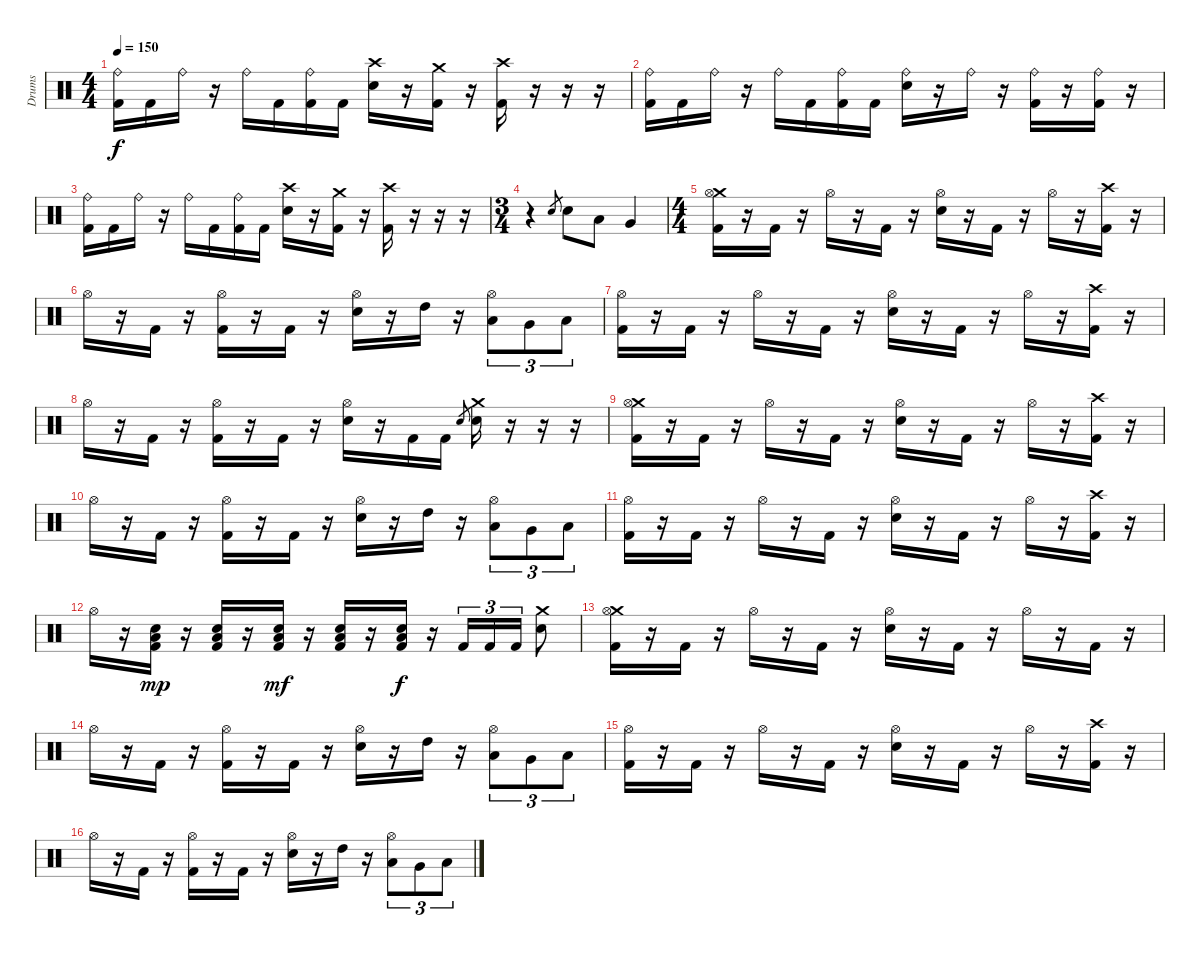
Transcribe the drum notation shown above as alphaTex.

\track ("Drums" "Drums") {instrument percussion}
\staff {score}
\articulation defaults
\ts (4 4)
\tempo 150
\clef neutral
\ks c
("Ride (bell)" "Kick (hit) 2").16{dy f} "Kick (hit) 2".16 "Ride (bell)".16 r.16 "Ride (bell)".16 "Kick (hit) 2".16 ("Ride (bell)" "Kick (hit) 2").16 "Kick (hit) 2".16 ("Crash high (hit)" "Electric Snare (hit)").16 r.16 ("Crash medium (hit)" "Kick (hit) 2").16 r.16 ("Crash high (hit)" "Kick (hit) 2").16 r.16 r.16 r.16 |
("Ride (bell)" "Kick (hit) 2").16 "Kick (hit) 2".16 "Ride (bell)".16 r.16 "Ride (bell)".16 "Kick (hit) 2".16 ("Ride (bell)" "Kick (hit) 2").16 "Kick (hit) 2".16 ("Ride (bell)" "Electric Snare (hit)").16 r.16 "Ride (bell)".16 r.16 ("Ride (bell)" "Kick (hit) 2").16 r.16 ("Ride (bell)" "Kick (hit) 2").16 r.16 |
("Ride (bell)" "Kick (hit) 2").16 "Kick (hit) 2".16 "Ride (bell)".16 r.16 "Ride (bell)".16 "Kick (hit) 2".16 ("Ride (bell)" "Kick (hit) 2").16 "Kick (hit) 2".16 ("Crash high (hit)" "Electric Snare (hit)").16 r.16 ("Crash medium (hit)" "Kick (hit) 2").16 r.16 ("Crash high (hit)" "Kick (hit) 2").16 r.16 r.16 r.16 |
\ts (3 4)
r.4 "Electric Snare (hit)".8{gr} "Electric Snare (hit)".8 "Low Tom (hit)".8 "Very Low Tom (hit)".4 |
\ts (4 4)
("Crash medium (hit)" "Hi-Hat (open)" "Kick (hit) 2").16 r.16 "Kick (hit) 2".16 r.16 "Hi-Hat (open)".16 r.16 "Kick (hit) 2".16 r.16 ("Hi-Hat (open)" "Electric Snare (hit)").16 r.16 "Kick (hit) 2".16 r.16 "Hi-Hat (open)".16 r.16 ("Crash high (hit)" "Kick (hit) 2").16 r.16 |
"Hi-Hat (open)".16 r.16 "Kick (hit) 2".16 r.16 ("Hi-Hat (open)" "Kick (hit) 2").16 r.16 "Kick (hit) 2".16 r.16 ("Hi-Hat (open)" "Electric Snare (hit)").16 r.16 "High Tom (hit)".16 r.16 ("Hi-Hat (open)" "Low Tom (hit)").8{tu (3 2)} "Very Low Tom (hit)".8{tu (3 2)} "Low Floor Tom (hit)".8{tu (3 2)} |
("Hi-Hat (open)" "Kick (hit) 2").16 r.16 "Kick (hit) 2".16 r.16 "Hi-Hat (open)".16 r.16 "Kick (hit) 2".16 r.16 ("Hi-Hat (open)" "Electric Snare (hit)").16 r.16 "Kick (hit) 2".16 r.16 "Hi-Hat (open)".16 r.16 ("Crash high (hit)" "Kick (hit) 2").16 r.16 |
"Hi-Hat (open)".16 r.16 "Kick (hit) 2".16 r.16 ("Hi-Hat (open)" "Kick (hit) 2").16 r.16 "Kick (hit) 2".16 r.16 ("Hi-Hat (open)" "Electric Snare (hit)").16 r.16 "Kick (hit) 2".16 "Kick (hit) 2".16 "Electric Snare (hit)".8{gr} ("Crash medium (hit)" "Electric Snare (hit)").16 r.16 r.16 r.16 |
("Crash medium (hit)" "Hi-Hat (open)" "Kick (hit) 2").16 r.16 "Kick (hit) 2".16 r.16 "Hi-Hat (open)".16 r.16 "Kick (hit) 2".16 r.16 ("Hi-Hat (open)" "Electric Snare (hit)").16 r.16 "Kick (hit) 2".16 r.16 "Hi-Hat (open)".16 r.16 ("Crash high (hit)" "Kick (hit) 2").16 r.16 |
"Hi-Hat (open)".16 r.16 "Kick (hit) 2".16 r.16 ("Hi-Hat (open)" "Kick (hit) 2").16 r.16 "Kick (hit) 2".16 r.16 ("Hi-Hat (open)" "Electric Snare (hit)").16 r.16 "High Tom (hit)".16 r.16 ("Hi-Hat (open)" "Low Tom (hit)").8{tu (3 2)} "Very Low Tom (hit)".8{tu (3 2)} "Low Floor Tom (hit)".8{tu (3 2)} |
("Hi-Hat (open)" "Kick (hit) 2").16 r.16 "Kick (hit) 2".16 r.16 "Hi-Hat (open)".16 r.16 "Kick (hit) 2".16 r.16 ("Hi-Hat (open)" "Electric Snare (hit)").16 r.16 "Kick (hit) 2".16 r.16 "Hi-Hat (open)".16 r.16 ("Crash high (hit)" "Kick (hit) 2").16 r.16 |
"Hi-Hat (open)".16 r.16 ("Low Tom (hit)" "Kick (hit) 2" "Electric Snare (hit)").16{dy mp} r.16 ("Low Tom (hit)" "Kick (hit) 2" "Electric Snare (hit)").16 r.16 ("Low Tom (hit)" "Kick (hit) 2" "Electric Snare (hit)").16{dy mf} r.16 ("Low Tom (hit)" "Electric Snare (hit)" "Kick (hit) 2").16 r.16 ("Low Tom (hit)" "Kick (hit) 2" "Electric Snare (hit)").16{dy f} r.16 "Kick (hit) 2".16{tu (3 2)} "Kick (hit) 2".16{tu (3 2)} "Kick (hit) 2".16{tu (3 2)} ("Crash medium (hit)" "Electric Snare (hit)").8 |
("Crash medium (hit)" "Hi-Hat (open)" "Kick (hit) 2").16 r.16 "Kick (hit) 2".16 r.16 "Hi-Hat (open)".16 r.16 "Kick (hit) 2".16 r.16 ("Hi-Hat (open)" "Electric Snare (hit)").16 r.16 "Kick (hit) 2".16 r.16 "Hi-Hat (open)".16 r.16 "Kick (hit) 2".16 r.16 |
"Hi-Hat (open)".16 r.16 "Kick (hit) 2".16 r.16 ("Hi-Hat (open)" "Kick (hit) 2").16 r.16 "Kick (hit) 2".16 r.16 ("Hi-Hat (open)" "Electric Snare (hit)").16 r.16 "High Tom (hit)".16 r.16 ("Hi-Hat (open)" "Low Tom (hit)").8{tu (3 2)} "Very Low Tom (hit)".8{tu (3 2)} "Low Floor Tom (hit)".8{tu (3 2)} |
("Hi-Hat (open)" "Kick (hit) 2").16 r.16 "Kick (hit) 2".16 r.16 "Hi-Hat (open)".16 r.16 "Kick (hit) 2".16 r.16 ("Hi-Hat (open)" "Electric Snare (hit)").16 r.16 "Kick (hit) 2".16 r.16 "Hi-Hat (open)".16 r.16 ("Crash high (hit)" "Kick (hit) 2").16 r.16 |
"Hi-Hat (open)".16 r.16 "Kick (hit) 2".16 r.16 ("Hi-Hat (open)" "Kick (hit) 2").16 r.16 "Kick (hit) 2".16 r.16 ("Hi-Hat (open)" "Electric Snare (hit)").16 r.16 "High Tom (hit)".16 r.16 ("Hi-Hat (open)" "Low Tom (hit)").8{tu (3 2)} "Very Low Tom (hit)".8{tu (3 2)} "Low Floor Tom (hit)".8{tu (3 2)}
